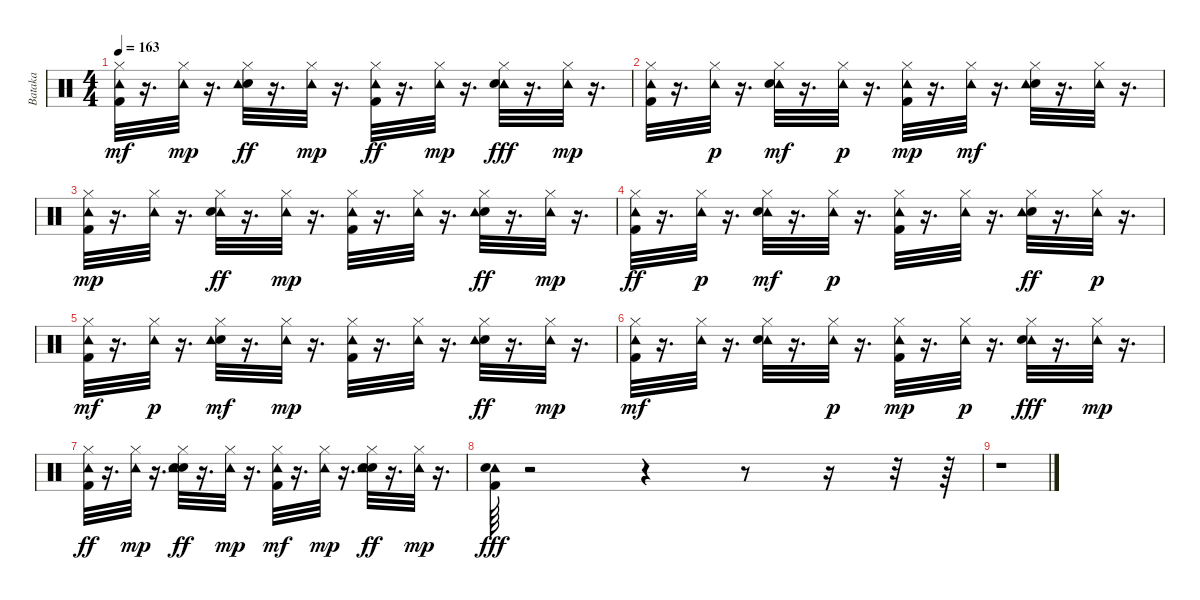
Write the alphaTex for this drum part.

\track ("Bataka" "Bataka") {instrument percussion}
\staff {score}
\articulation defaults
\ts (4 4)
\tempo 163
\clef neutral
\ks c
("Tambourine (hit)" "Kick (hit) 2" "Hi-Hat (closed)").32{dy mf} r.16{d} ("Tambourine (hit)" "Hi-Hat (closed)").32{dy mp} r.16{d} ("Electric Snare (hit)" "Hi-Hat (closed)" "Tambourine (hit)").32{dy ff} r.16{d} ("Tambourine (hit)" "Hi-Hat (closed)").32{dy mp} r.16{d} ("Tambourine (hit)" "Hi-Hat (closed)" "Kick (hit) 2").32{dy ff} r.16{d} ("Hi-Hat (closed)" "Tambourine (hit)").32{dy mp} r.16{d} ("Hi-Hat (closed)" "Tambourine (hit)" "Electric Snare (hit)").32{dy fff} r.16{d} ("Tambourine (hit)" "Hi-Hat (closed)").32{dy mp} r.16{d} |
("Hi-Hat (closed)" "Tambourine (hit)" "Kick (hit) 2").32 r.16{d} ("Tambourine (hit)" "Hi-Hat (closed)").32{dy p} r.16{d} ("Tambourine (hit)" "Electric Snare (hit)" "Hi-Hat (closed)").32{dy mf} r.16{d} ("Tambourine (hit)" "Hi-Hat (closed)").32{dy p} r.16{d} ("Hi-Hat (closed)" "Kick (hit) 2" "Tambourine (hit)").32{dy mp} r.16{d} ("Hi-Hat (closed)" "Tambourine (hit)").32{dy mf} r.16{d} ("Electric Snare (hit)" "Tambourine (hit)" "Hi-Hat (closed)").32 r.16{d} ("Hi-Hat (closed)" "Tambourine (hit)").32 r.16{d} |
("Hi-Hat (closed)" "Kick (hit) 2" "Tambourine (hit)").32{dy mp} r.16{d} ("Tambourine (hit)" "Hi-Hat (closed)").32 r.16{d} ("Hi-Hat (closed)" "Tambourine (hit)" "Electric Snare (hit)").32{dy ff} r.16{d} ("Hi-Hat (closed)" "Tambourine (hit)").32{dy mp} r.16{d} ("Hi-Hat (closed)" "Kick (hit) 2" "Tambourine (hit)").32 r.16{d} ("Hi-Hat (closed)" "Tambourine (hit)").32 r.16{d} ("Electric Snare (hit)" "Hi-Hat (closed)" "Tambourine (hit)").32{dy ff} r.16{d} ("Tambourine (hit)" "Hi-Hat (closed)").32{dy mp} r.16{d} |
("Tambourine (hit)" "Hi-Hat (closed)" "Kick (hit) 2").32{dy ff} r.16{d} ("Tambourine (hit)" "Hi-Hat (closed)").32{dy p} r.16{d} ("Tambourine (hit)" "Electric Snare (hit)" "Hi-Hat (closed)").32{dy mf} r.16{d} ("Tambourine (hit)" "Hi-Hat (closed)").32{dy p} r.16{d} ("Hi-Hat (closed)" "Kick (hit) 2" "Tambourine (hit)").32 r.16{d} ("Hi-Hat (closed)" "Tambourine (hit)").32 r.16{d} ("Electric Snare (hit)" "Hi-Hat (closed)" "Tambourine (hit)").32{dy ff} r.16{d} ("Hi-Hat (closed)" "Tambourine (hit)").32{dy p} r.16{d} |
("Tambourine (hit)" "Kick (hit) 2" "Hi-Hat (closed)").32{dy mf} r.16{d} ("Hi-Hat (closed)" "Tambourine (hit)").32{dy p} r.16{d} ("Electric Snare (hit)" "Tambourine (hit)" "Hi-Hat (closed)").32{dy mf} r.16{d} ("Tambourine (hit)" "Hi-Hat (closed)").32{dy mp} r.16{d} ("Kick (hit) 2" "Hi-Hat (closed)" "Tambourine (hit)").32 r.16{d} ("Tambourine (hit)" "Hi-Hat (closed)").32 r.16{d} ("Electric Snare (hit)" "Hi-Hat (closed)" "Tambourine (hit)").32{dy ff} r.16{d} ("Hi-Hat (closed)" "Tambourine (hit)").32{dy mp} r.16{d} |
("Kick (hit) 2" "Tambourine (hit)" "Hi-Hat (closed)").32{dy mf} r.16{d} ("Hi-Hat (closed)" "Tambourine (hit)").32 r.16{d} ("Tambourine (hit)" "Electric Snare (hit)" "Hi-Hat (closed)").32 r.16{d} ("Tambourine (hit)" "Hi-Hat (closed)").32{dy p} r.16{d} ("Hi-Hat (closed)" "Tambourine (hit)" "Kick (hit) 2").32{dy mp} r.16{d} ("Tambourine (hit)" "Hi-Hat (closed)").32{dy p} r.16{d} ("Hi-Hat (closed)" "Tambourine (hit)" "Electric Snare (hit)").32{dy fff} r.16{d} ("Tambourine (hit)" "Hi-Hat (closed)").32{dy mp} r.16{d} |
("Tambourine (hit)" "Hi-Hat (closed)" "Kick (hit) 2").32{dy ff} r.16{d} ("Tambourine (hit)" "Hi-Hat (closed)").32{dy mp} r.16{d} ("Hi-Hat (closed)" "Hand Clap (hit)" "Electric Snare (hit)" "Tambourine (hit)").32{dy ff} r.16{d} ("Hi-Hat (closed)" "Tambourine (hit)").32{dy mp} r.16{d} ("Kick (hit) 2" "Tambourine (hit)" "Hi-Hat (closed)").32{dy mf} r.16{d} ("Hi-Hat (closed)" "Tambourine (hit)").32{dy mp} r.16{d} ("Electric Snare (hit)" "Hand Clap (hit)" "Hi-Hat (closed)" "Tambourine (hit)").32{dy ff} r.16{d} ("Tambourine (hit)" "Hi-Hat (closed)").32{dy mp} r.16{d} |
("Tambourine (hit)" "Electric Snare (hit)" "Kick (hit) 2").64{dy fff} r.2 r.4 r.8 r.16 r.32 r.64 |
r.1
